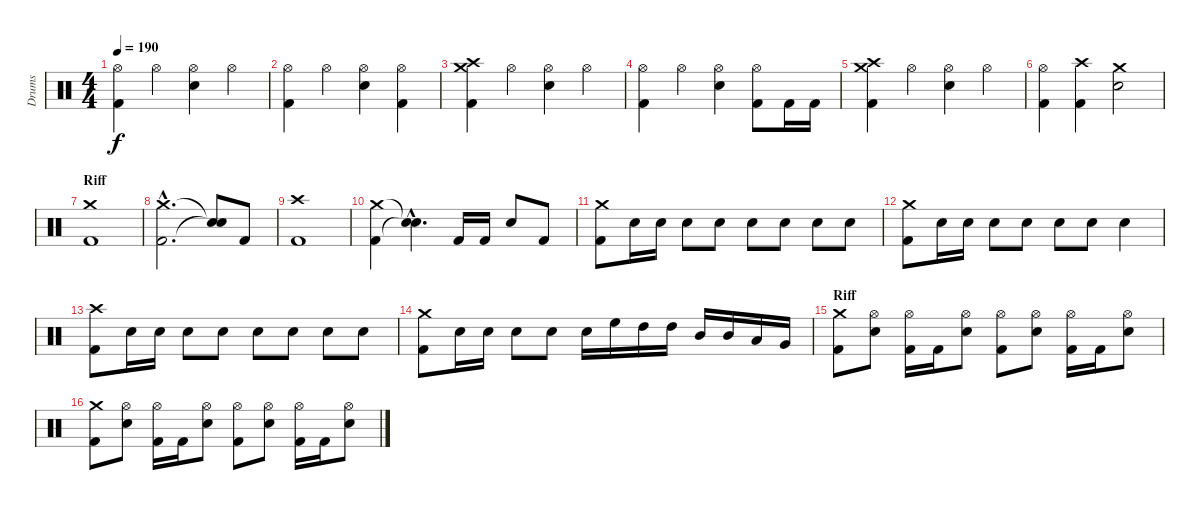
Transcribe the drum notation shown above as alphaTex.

\track ("Drums" "Drums") {instrument percussion}
\staff {score}
\articulation defaults
\ts (4 4)
\tempo 190
\clef neutral
\ks c
("Hi-Hat (open)" "Kick (hit) 2").4{dy f} "Hi-Hat (open)".4 ("Hi-Hat (open)" "Snare (hit) 2").4 "Hi-Hat (open)".4 |
("Hi-Hat (open)" "Kick (hit) 2").4 "Hi-Hat (open)".4 ("Hi-Hat (open)" "Snare (hit) 2").4 ("Hi-Hat (open)" "Kick (hit) 2").4 |
("Crash medium (hit)" "Crash high (hit)" "Kick (hit) 2").4 "Hi-Hat (open)".4 ("Hi-Hat (open)" "Snare (hit) 2").4 "Hi-Hat (open)".4 |
("Hi-Hat (open)" "Kick (hit) 2").4 "Hi-Hat (open)".4 ("Hi-Hat (open)" "Snare (hit) 2").4 ("Hi-Hat (open)" "Kick (hit) 2").8 "Kick (hit) 2".16 "Kick (hit) 2".16 |
("Crash medium (hit)" "Crash high (hit)" "Kick (hit) 2").4 "Hi-Hat (open)".4 ("Hi-Hat (open)" "Snare (hit) 2").4 "Hi-Hat (open)".4 |
("Hi-Hat (open)" "Kick (hit) 2").4 ("Crash high (hit)" "Kick (hit) 2").4 ("Crash medium (hit)" "Snare (hit) 2").2 |
\section ("" "Riff")
("Crash medium (hit)" "Kick (hit) 2").1 |
("Crash medium (hit)"{hac} "Kick (hit) 2"{hac}).2{d} ("Snare (hit)"{t} "Snare (hit)"{t}).8 "Kick (hit) 2".8 |
("Crash high (hit)" "Kick (hit) 2").1 |
("Crash medium (hit)" "Kick (hit) 2").4 ("Snare (hit)"{hac t} "Snare (hit)"{hac t}).4{d} "Kick (hit) 2".16 "Kick (hit) 2".16 "Snare (hit) 2".8 "Kick (hit) 2".8 |
("Crash medium (hit)" "Kick (hit) 2").8 "Snare (hit) 2".16 "Snare (hit) 2".16 "Snare (hit) 2".8 "Snare (hit) 2".8 "Snare (hit) 2".8 "Snare (hit) 2".8 "Snare (hit) 2".8 "Snare (hit) 2".8 |
("Crash medium (hit)" "Kick (hit) 2").8 "Snare (hit) 2".16 "Snare (hit) 2".16 "Snare (hit) 2".8 "Snare (hit) 2".8 "Snare (hit) 2".8 "Snare (hit) 2".8 "Snare (hit) 2".4 |
("Crash high (hit)" "Kick (hit) 2").8 "Snare (hit) 2".16 "Snare (hit) 2".16 "Snare (hit) 2".8 "Snare (hit) 2".8 "Snare (hit) 2".8 "Snare (hit) 2".8 "Snare (hit) 2".8 "Snare (hit) 2".8 |
("Crash medium (hit)" "Kick (hit) 2").8 "Snare (hit) 2".16 "Snare (hit) 2".16 "Snare (hit) 2".8 "Snare (hit) 2".8 "Snare (hit) 2".16 "High Floor Tom (hit)".16 "High Tom (hit)".16 "High Tom (hit)".16 "Mid Tom (hit)".16 "Mid Tom (hit)".16 "Low Tom (hit)".16 "Very Low Tom (hit)".16 |
\section ("" "Riff")
("Crash medium (hit)" "Kick (hit) 2").8 ("Hi-Hat (open)" "Snare (hit) 2").8 ("Hi-Hat (open)" "Kick (hit) 2").16 "Kick (hit) 2".16 ("Hi-Hat (open)" "Snare (hit) 2").8 ("Hi-Hat (open)" "Kick (hit) 2").8 ("Hi-Hat (open)" "Snare (hit) 2").8 ("Hi-Hat (open)" "Kick (hit) 2").16 "Kick (hit) 2".16 ("Hi-Hat (open)" "Snare (hit) 2").8 |
("Crash medium (hit)" "Kick (hit) 2").8 ("Hi-Hat (open)" "Snare (hit) 2").8 ("Hi-Hat (open)" "Kick (hit) 2").16 "Kick (hit) 2".16 ("Hi-Hat (open)" "Snare (hit) 2").8 ("Hi-Hat (open)" "Kick (hit) 2").8 ("Hi-Hat (open)" "Snare (hit) 2").8 ("Hi-Hat (open)" "Kick (hit) 2").16 "Kick (hit) 2".16 ("Hi-Hat (open)" "Snare (hit) 2").8
